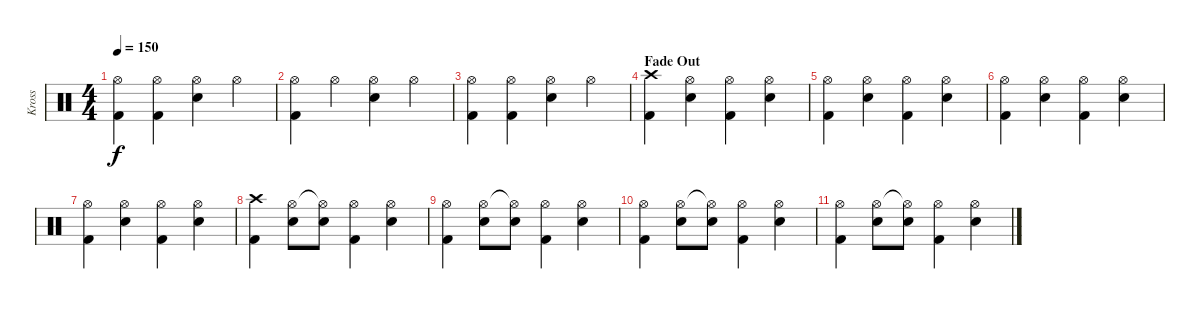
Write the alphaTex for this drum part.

\track ("Kross" "Kross") {instrument percussion}
\staff {score}
\articulation defaults
\ts (4 4)
\tempo 150
\clef neutral
\ks c
("Hi-Hat (open)" "Kick (hit) 2").4{dy f} ("Hi-Hat (open)" "Kick (hit) 2").4 ("Hi-Hat (open)" "Snare (hit) 2").4 "Hi-Hat (open)".4 |
("Hi-Hat (open)" "Kick (hit) 2").4 "Hi-Hat (open)".4 ("Hi-Hat (open)" "Snare (hit) 2").4 "Hi-Hat (open)".4 |
("Hi-Hat (open)" "Kick (hit) 2").4 ("Hi-Hat (open)" "Kick (hit) 2").4 ("Hi-Hat (open)" "Snare (hit) 2").4 "Hi-Hat (open)".4 |
\section ("" "Fade Out")
("Crash high (hit)" "Kick (hit) 2").4{volume 7} ("Hi-Hat (open)" "Snare (hit) 2").4 ("Hi-Hat (open)" "Kick (hit) 2").4 ("Hi-Hat (open)" "Snare (hit) 2").4 |
("Hi-Hat (open)" "Kick (hit) 2").4 ("Hi-Hat (open)" "Snare (hit) 2").4 ("Hi-Hat (open)" "Kick (hit) 2").4 ("Hi-Hat (open)" "Snare (hit) 2").4 |
("Hi-Hat (open)" "Kick (hit) 2").4 ("Hi-Hat (open)" "Snare (hit) 2").4 ("Hi-Hat (open)" "Kick (hit) 2").4 ("Hi-Hat (open)" "Snare (hit) 2").4 |
("Hi-Hat (open)" "Kick (hit) 2").4 ("Hi-Hat (open)" "Snare (hit) 2").4 ("Hi-Hat (open)" "Kick (hit) 2").4 ("Hi-Hat (open)" "Snare (hit) 2").4 |
("Crash high (hit)" "Kick (hit) 2").4{volume 0} ("Hi-Hat (open)" "Snare (hit) 2").8 ("Hi-Hat (open)"{t} "Snare (hit) 2").8 ("Hi-Hat (open)" "Kick (hit) 2").4 ("Hi-Hat (open)" "Snare (hit) 2").4 |
("Hi-Hat (open)" "Kick (hit) 2").4 ("Hi-Hat (open)" "Snare (hit) 2").8 ("Hi-Hat (open)"{t} "Snare (hit) 2").8 ("Hi-Hat (open)" "Kick (hit) 2").4 ("Hi-Hat (open)" "Snare (hit) 2").4 |
("Hi-Hat (open)" "Kick (hit) 2").4 ("Hi-Hat (open)" "Snare (hit) 2").8 ("Hi-Hat (open)"{t} "Snare (hit) 2").8 ("Hi-Hat (open)" "Kick (hit) 2").4 ("Hi-Hat (open)" "Snare (hit) 2").4 |
("Hi-Hat (open)" "Kick (hit) 2").4 ("Hi-Hat (open)" "Snare (hit) 2").8 ("Hi-Hat (open)"{t} "Snare (hit) 2").8 ("Hi-Hat (open)" "Kick (hit) 2").4 ("Hi-Hat (open)" "Snare (hit) 2").4
